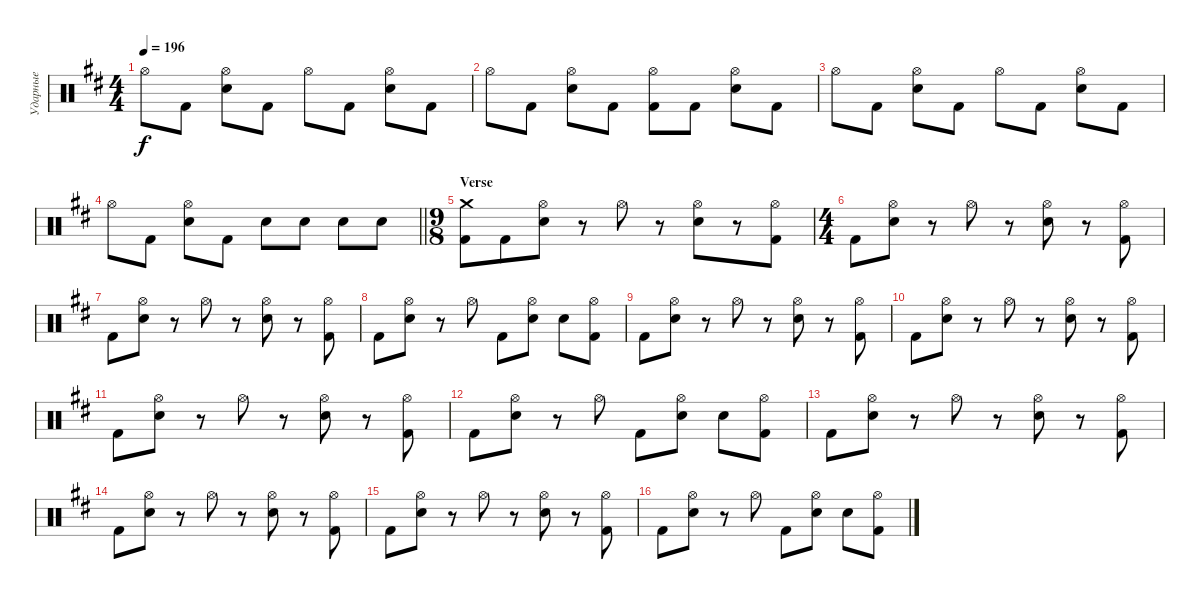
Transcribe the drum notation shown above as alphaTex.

\track ("Ударные" "Ударные") {instrument percussion}
\staff {score}
\articulation defaults
\ts (4 4)
\tempo 196
\clef neutral
\ks d "Hi-Hat (open)".8{dy f} "Kick (hit) 2".8
("Hi-Hat (open)" "Electric Snare (hit)").8 "Kick (hit) 2".8 "Hi-Hat (open)".8 "Kick (hit) 2".8 ("Hi-Hat (open)" "Electric Snare (hit)").8 "Kick (hit) 2".8 |
"Hi-Hat (open)".8 "Kick (hit) 2".8 ("Hi-Hat (open)" "Electric Snare (hit)").8 "Kick (hit) 2".8 ("Hi-Hat (open)" "Kick (hit) 2").8 "Kick (hit) 2".8 ("Hi-Hat (open)" "Electric Snare (hit)").8 "Kick (hit) 2".8 |
"Hi-Hat (open)".8 "Kick (hit) 2".8 ("Hi-Hat (open)" "Electric Snare (hit)").8 "Kick (hit) 2".8 "Hi-Hat (open)".8 "Kick (hit) 2".8 ("Hi-Hat (open)" "Electric Snare (hit)").8 "Kick (hit) 2".8 |
\barLineRight lightlight "Hi-Hat (open)".8 "Kick (hit) 2".8
("Hi-Hat (open)" "Electric Snare (hit)").8 "Kick (hit) 2".8 "Electric Snare (hit)".8 "Electric Snare (hit)".8 "Electric Snare (hit)".8 "Electric Snare (hit)".8 |
\ts (9 8)
\section ("" "Verse")
("Crash medium (hit)" "Kick (hit) 2").8 "Kick (hit) 2".8 ("Hi-Hat (open)" "Electric Snare (hit)").8 r.8 "Hi-Hat (open)".8 r.8 ("Hi-Hat (open)" "Electric Snare (hit)").8 r.8 ("Hi-Hat (open)" "Kick (hit) 2").8 |
\ts (4 4)
"Kick (hit) 2".8 ("Hi-Hat (open)" "Electric Snare (hit)").8 r.8 "Hi-Hat (open)".8 r.8 ("Hi-Hat (open)" "Electric Snare (hit)").8 r.8 ("Hi-Hat (open)" "Kick (hit) 2").8 |
"Kick (hit) 2".8 ("Hi-Hat (open)" "Electric Snare (hit)").8 r.8 "Hi-Hat (open)".8 r.8 ("Hi-Hat (open)" "Electric Snare (hit)").8 r.8 ("Hi-Hat (open)" "Kick (hit) 2").8 |
"Kick (hit) 2".8 ("Hi-Hat (open)" "Electric Snare (hit)").8 r.8 "Hi-Hat (open)".8 "Kick (hit) 2".8 ("Hi-Hat (open)" "Electric Snare (hit)").8 "Electric Snare (hit)".8 ("Hi-Hat (open)" "Kick (hit) 2").8 |
"Kick (hit) 2".8 ("Hi-Hat (open)" "Electric Snare (hit)").8 r.8 "Hi-Hat (open)".8 r.8 ("Hi-Hat (open)" "Electric Snare (hit)").8 r.8 ("Hi-Hat (open)" "Kick (hit) 2").8 |
"Kick (hit) 2".8 ("Hi-Hat (open)" "Electric Snare (hit)").8 r.8 "Hi-Hat (open)".8 r.8 ("Hi-Hat (open)" "Electric Snare (hit)").8 r.8 ("Hi-Hat (open)" "Kick (hit) 2").8 |
"Kick (hit) 2".8 ("Hi-Hat (open)" "Electric Snare (hit)").8 r.8 "Hi-Hat (open)".8 r.8 ("Hi-Hat (open)" "Electric Snare (hit)").8 r.8 ("Hi-Hat (open)" "Kick (hit) 2").8 |
"Kick (hit) 2".8 ("Hi-Hat (open)" "Electric Snare (hit)").8 r.8 "Hi-Hat (open)".8 "Kick (hit) 2".8 ("Hi-Hat (open)" "Electric Snare (hit)").8 "Electric Snare (hit)".8 ("Hi-Hat (open)" "Kick (hit) 2").8 |
"Kick (hit) 2".8 ("Hi-Hat (open)" "Electric Snare (hit)").8 r.8 "Hi-Hat (open)".8 r.8 ("Hi-Hat (open)" "Electric Snare (hit)").8 r.8 ("Hi-Hat (open)" "Kick (hit) 2").8 |
"Kick (hit) 2".8 ("Hi-Hat (open)" "Electric Snare (hit)").8 r.8 "Hi-Hat (open)".8 r.8 ("Hi-Hat (open)" "Electric Snare (hit)").8 r.8 ("Hi-Hat (open)" "Kick (hit) 2").8 |
"Kick (hit) 2".8 ("Hi-Hat (open)" "Electric Snare (hit)").8 r.8 "Hi-Hat (open)".8 r.8 ("Hi-Hat (open)" "Electric Snare (hit)").8 r.8 ("Hi-Hat (open)" "Kick (hit) 2").8 |
"Kick (hit) 2".8 ("Hi-Hat (open)" "Electric Snare (hit)").8 r.8 "Hi-Hat (open)".8 "Kick (hit) 2".8 ("Hi-Hat (open)" "Electric Snare (hit)").8 "Electric Snare (hit)".8 ("Hi-Hat (open)" "Kick (hit) 2").8
